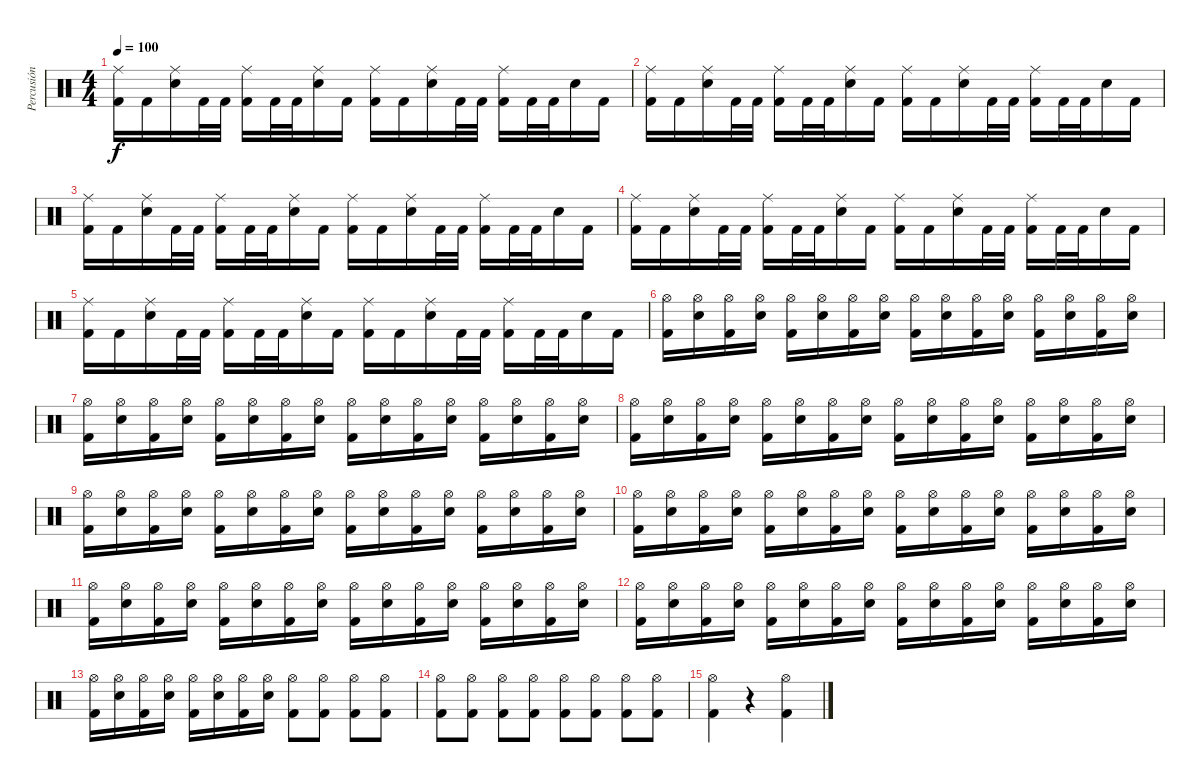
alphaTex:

\track ("Percusión" "Percusión") {instrument percussion}
\staff {score}
\articulation defaults
\ts (4 4)
\tempo 100
\clef neutral
\ks c
("Ride (middle)" "Kick (hit) 2").16{dy f} "Kick (hit) 2".16 ("Ride (middle)" "Snare (hit) 2").16 "Kick (hit) 2".32 "Kick (hit) 2".32 ("Ride (middle)" "Kick (hit) 2").16 "Kick (hit) 2".32 "Kick (hit) 2".32 ("Ride (middle)" "Snare (hit) 2").16 "Kick (hit) 2".16 ("Ride (middle)" "Kick (hit) 2").16 "Kick (hit) 2".16 ("Ride (middle)" "Snare (hit) 2").16 "Kick (hit) 2".32 "Kick (hit) 2".32 ("Ride (middle)" "Kick (hit) 2").16 "Kick (hit) 2".32 "Kick (hit) 2".32 "Snare (hit) 2".16 "Kick (hit) 2".16 |
("Ride (middle)" "Kick (hit) 2").16 "Kick (hit) 2".16 ("Ride (middle)" "Snare (hit) 2").16 "Kick (hit) 2".32 "Kick (hit) 2".32 ("Ride (middle)" "Kick (hit) 2").16 "Kick (hit) 2".32 "Kick (hit) 2".32 ("Ride (middle)" "Snare (hit) 2").16 "Kick (hit) 2".16 ("Ride (middle)" "Kick (hit) 2").16 "Kick (hit) 2".16 ("Ride (middle)" "Snare (hit) 2").16 "Kick (hit) 2".32 "Kick (hit) 2".32 ("Ride (middle)" "Kick (hit) 2").16 "Kick (hit) 2".32 "Kick (hit) 2".32 "Snare (hit) 2".16 "Kick (hit) 2".16 |
("Ride (middle)" "Kick (hit) 2").16 "Kick (hit) 2".16 ("Ride (middle)" "Snare (hit) 2").16 "Kick (hit) 2".32 "Kick (hit) 2".32 ("Ride (middle)" "Kick (hit) 2").16 "Kick (hit) 2".32 "Kick (hit) 2".32 ("Ride (middle)" "Snare (hit) 2").16 "Kick (hit) 2".16 ("Ride (middle)" "Kick (hit) 2").16 "Kick (hit) 2".16 ("Ride (middle)" "Snare (hit) 2").16 "Kick (hit) 2".32 "Kick (hit) 2".32 ("Ride (middle)" "Kick (hit) 2").16 "Kick (hit) 2".32 "Kick (hit) 2".32 "Snare (hit) 2".16 "Kick (hit) 2".16 |
("Ride (middle)" "Kick (hit) 2").16 "Kick (hit) 2".16 ("Ride (middle)" "Snare (hit) 2").16 "Kick (hit) 2".32 "Kick (hit) 2".32 ("Ride (middle)" "Kick (hit) 2").16 "Kick (hit) 2".32 "Kick (hit) 2".32 ("Ride (middle)" "Snare (hit) 2").16 "Kick (hit) 2".16 ("Ride (middle)" "Kick (hit) 2").16 "Kick (hit) 2".16 ("Ride (middle)" "Snare (hit) 2").16 "Kick (hit) 2".32 "Kick (hit) 2".32 ("Ride (middle)" "Kick (hit) 2").16 "Kick (hit) 2".32 "Kick (hit) 2".32 "Snare (hit) 2".16 "Kick (hit) 2".16 |
("Ride (middle)" "Kick (hit) 2").16 "Kick (hit) 2".16 ("Ride (middle)" "Snare (hit) 2").16 "Kick (hit) 2".32 "Kick (hit) 2".32 ("Ride (middle)" "Kick (hit) 2").16 "Kick (hit) 2".32 "Kick (hit) 2".32 ("Ride (middle)" "Snare (hit) 2").16 "Kick (hit) 2".16 ("Ride (middle)" "Kick (hit) 2").16 "Kick (hit) 2".16 ("Ride (middle)" "Snare (hit) 2").16 "Kick (hit) 2".32 "Kick (hit) 2".32 ("Ride (middle)" "Kick (hit) 2").16 "Kick (hit) 2".32 "Kick (hit) 2".32 "Snare (hit) 2".16 "Kick (hit) 2".16 |
("Hi-Hat (open)" "Kick (hit) 2").16 ("Hi-Hat (open)" "Snare (hit) 2").16 ("Hi-Hat (open)" "Kick (hit) 2").16 ("Hi-Hat (open)" "Snare (hit) 2").16 ("Hi-Hat (open)" "Kick (hit) 2").16 ("Hi-Hat (open)" "Snare (hit) 2").16 ("Hi-Hat (open)" "Kick (hit) 2").16 ("Hi-Hat (open)" "Snare (hit) 2").16 ("Hi-Hat (open)" "Kick (hit) 2").16 ("Hi-Hat (open)" "Snare (hit) 2").16 ("Hi-Hat (open)" "Kick (hit) 2").16 ("Hi-Hat (open)" "Snare (hit) 2").16 ("Hi-Hat (open)" "Kick (hit) 2").16 ("Hi-Hat (open)" "Snare (hit) 2").16 ("Hi-Hat (open)" "Kick (hit) 2").16 ("Hi-Hat (open)" "Snare (hit) 2").16 |
("Hi-Hat (open)" "Kick (hit) 2").16 ("Hi-Hat (open)" "Snare (hit) 2").16 ("Hi-Hat (open)" "Kick (hit) 2").16 ("Hi-Hat (open)" "Snare (hit) 2").16 ("Hi-Hat (open)" "Kick (hit) 2").16 ("Hi-Hat (open)" "Snare (hit) 2").16 ("Hi-Hat (open)" "Kick (hit) 2").16 ("Hi-Hat (open)" "Snare (hit) 2").16 ("Hi-Hat (open)" "Kick (hit) 2").16 ("Hi-Hat (open)" "Snare (hit) 2").16 ("Hi-Hat (open)" "Kick (hit) 2").16 ("Hi-Hat (open)" "Snare (hit) 2").16 ("Hi-Hat (open)" "Kick (hit) 2").16 ("Hi-Hat (open)" "Snare (hit) 2").16 ("Hi-Hat (open)" "Kick (hit) 2").16 ("Hi-Hat (open)" "Snare (hit) 2").16 |
("Hi-Hat (open)" "Kick (hit) 2").16 ("Hi-Hat (open)" "Snare (hit) 2").16 ("Hi-Hat (open)" "Kick (hit) 2").16 ("Hi-Hat (open)" "Snare (hit) 2").16 ("Hi-Hat (open)" "Kick (hit) 2").16 ("Hi-Hat (open)" "Snare (hit) 2").16 ("Hi-Hat (open)" "Kick (hit) 2").16 ("Hi-Hat (open)" "Snare (hit) 2").16 ("Hi-Hat (open)" "Kick (hit) 2").16 ("Hi-Hat (open)" "Snare (hit) 2").16 ("Hi-Hat (open)" "Kick (hit) 2").16 ("Hi-Hat (open)" "Snare (hit) 2").16 ("Hi-Hat (open)" "Kick (hit) 2").16 ("Hi-Hat (open)" "Snare (hit) 2").16 ("Hi-Hat (open)" "Kick (hit) 2").16 ("Hi-Hat (open)" "Snare (hit) 2").16 |
("Hi-Hat (open)" "Kick (hit) 2").16 ("Hi-Hat (open)" "Snare (hit) 2").16 ("Hi-Hat (open)" "Kick (hit) 2").16 ("Hi-Hat (open)" "Snare (hit) 2").16 ("Hi-Hat (open)" "Kick (hit) 2").16 ("Hi-Hat (open)" "Snare (hit) 2").16 ("Hi-Hat (open)" "Kick (hit) 2").16 ("Hi-Hat (open)" "Snare (hit) 2").16 ("Hi-Hat (open)" "Kick (hit) 2").16 ("Hi-Hat (open)" "Snare (hit) 2").16 ("Hi-Hat (open)" "Kick (hit) 2").16 ("Hi-Hat (open)" "Snare (hit) 2").16 ("Hi-Hat (open)" "Kick (hit) 2").16 ("Hi-Hat (open)" "Snare (hit) 2").16 ("Hi-Hat (open)" "Kick (hit) 2").16 ("Hi-Hat (open)" "Snare (hit) 2").16 |
("Hi-Hat (open)" "Kick (hit) 2").16 ("Hi-Hat (open)" "Snare (hit) 2").16 ("Hi-Hat (open)" "Kick (hit) 2").16 ("Hi-Hat (open)" "Snare (hit) 2").16 ("Hi-Hat (open)" "Kick (hit) 2").16 ("Hi-Hat (open)" "Snare (hit) 2").16 ("Hi-Hat (open)" "Kick (hit) 2").16 ("Hi-Hat (open)" "Snare (hit) 2").16 ("Hi-Hat (open)" "Kick (hit) 2").16 ("Hi-Hat (open)" "Snare (hit) 2").16 ("Hi-Hat (open)" "Kick (hit) 2").16 ("Hi-Hat (open)" "Snare (hit) 2").16 ("Hi-Hat (open)" "Kick (hit) 2").16 ("Hi-Hat (open)" "Snare (hit) 2").16 ("Hi-Hat (open)" "Kick (hit) 2").16 ("Hi-Hat (open)" "Snare (hit) 2").16 |
("Hi-Hat (open)" "Kick (hit) 2").16 ("Hi-Hat (open)" "Snare (hit) 2").16 ("Hi-Hat (open)" "Kick (hit) 2").16 ("Hi-Hat (open)" "Snare (hit) 2").16 ("Hi-Hat (open)" "Kick (hit) 2").16 ("Hi-Hat (open)" "Snare (hit) 2").16 ("Hi-Hat (open)" "Kick (hit) 2").16 ("Hi-Hat (open)" "Snare (hit) 2").16 ("Hi-Hat (open)" "Kick (hit) 2").16 ("Hi-Hat (open)" "Snare (hit) 2").16 ("Hi-Hat (open)" "Kick (hit) 2").16 ("Hi-Hat (open)" "Snare (hit) 2").16 ("Hi-Hat (open)" "Kick (hit) 2").16 ("Hi-Hat (open)" "Snare (hit) 2").16 ("Hi-Hat (open)" "Kick (hit) 2").16 ("Hi-Hat (open)" "Snare (hit) 2").16 |
("Hi-Hat (open)" "Kick (hit) 2").16 ("Hi-Hat (open)" "Snare (hit) 2").16 ("Hi-Hat (open)" "Kick (hit) 2").16 ("Hi-Hat (open)" "Snare (hit) 2").16 ("Hi-Hat (open)" "Kick (hit) 2").16 ("Hi-Hat (open)" "Snare (hit) 2").16 ("Hi-Hat (open)" "Kick (hit) 2").16 ("Hi-Hat (open)" "Snare (hit) 2").16 ("Hi-Hat (open)" "Kick (hit) 2").16 ("Hi-Hat (open)" "Snare (hit) 2").16 ("Hi-Hat (open)" "Kick (hit) 2").16 ("Hi-Hat (open)" "Snare (hit) 2").16 ("Hi-Hat (open)" "Kick (hit) 2").16 ("Hi-Hat (open)" "Snare (hit) 2").16 ("Hi-Hat (open)" "Kick (hit) 2").16 ("Hi-Hat (open)" "Snare (hit) 2").16 |
("Hi-Hat (open)" "Kick (hit) 2").16 ("Hi-Hat (open)" "Snare (hit) 2").16 ("Hi-Hat (open)" "Kick (hit) 2").16 ("Hi-Hat (open)" "Snare (hit) 2").16 ("Hi-Hat (open)" "Kick (hit) 2").16 ("Hi-Hat (open)" "Snare (hit) 2").16 ("Hi-Hat (open)" "Kick (hit) 2").16 ("Hi-Hat (open)" "Snare (hit) 2").16 ("Hi-Hat (open)" "Kick (hit) 2").8 ("Hi-Hat (open)" "Kick (hit) 2").8 ("Hi-Hat (open)" "Kick (hit) 2").8 ("Hi-Hat (open)" "Kick (hit) 2").8 |
("Hi-Hat (open)" "Kick (hit) 2").8 ("Hi-Hat (open)" "Kick (hit) 2").8 ("Hi-Hat (open)" "Kick (hit) 2").8 ("Hi-Hat (open)" "Kick (hit) 2").8 ("Hi-Hat (open)" "Kick (hit) 2").8 ("Hi-Hat (open)" "Kick (hit) 2").8 ("Hi-Hat (open)" "Kick (hit) 2").8 ("Hi-Hat (open)" "Kick (hit) 2").8 |
("Hi-Hat (open)" "Kick (hit) 2").4 r.4 ("Hi-Hat (open)" "Kick (hit) 2").4
